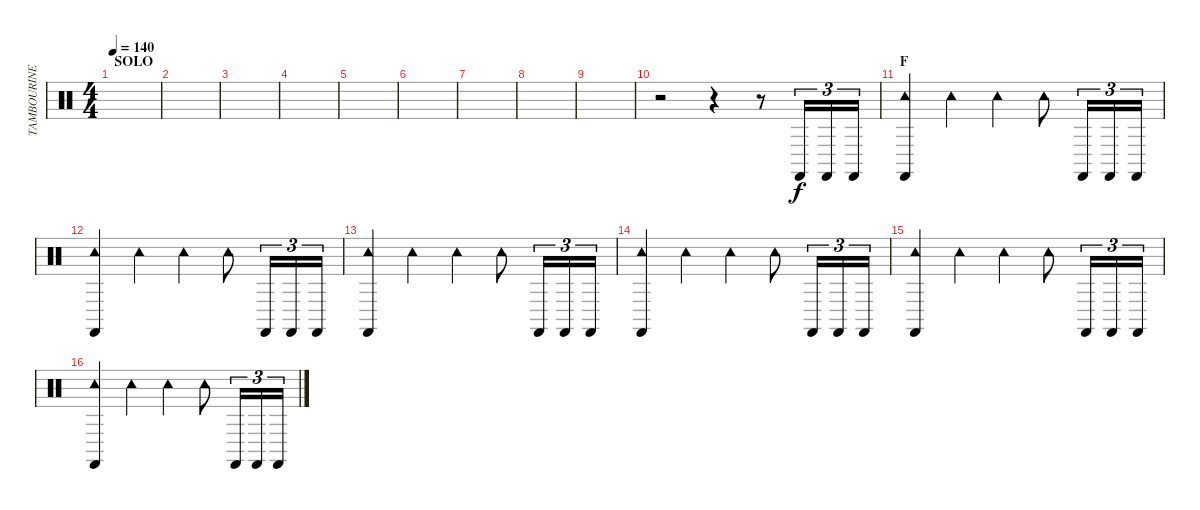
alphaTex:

\track ("TAMBOURINE" "TAMBOURINE") {instrument percussion}
\staff {score}
\articulation defaults
\ts (4 4)
\section ("" "SOLO")
\tempo 140
\clef neutral
\ks aminor
|
|
|
|
|
|
|
|
|
r.2 r.4 r.8 "Castanets (hit)".16{tu (3 2)} "Castanets (hit)".16{tu (3 2)} "Castanets (hit)".16{tu (3 2)} |
\section ("" "F")
("Tambourine (hit)" "Castanets (hit)").4 "Tambourine (hit)".4 "Tambourine (hit)".4 "Tambourine (hit)".8 "Castanets (hit)".16{tu (3 2)} "Castanets (hit)".16{tu (3 2)} "Castanets (hit)".16{tu (3 2)} |
("Tambourine (hit)" "Castanets (hit)").4 "Tambourine (hit)".4 "Tambourine (hit)".4 "Tambourine (hit)".8 "Castanets (hit)".16{tu (3 2)} "Castanets (hit)".16{tu (3 2)} "Castanets (hit)".16{tu (3 2)} |
("Tambourine (hit)" "Castanets (hit)").4 "Tambourine (hit)".4 "Tambourine (hit)".4 "Tambourine (hit)".8 "Castanets (hit)".16{tu (3 2)} "Castanets (hit)".16{tu (3 2)} "Castanets (hit)".16{tu (3 2)} |
("Tambourine (hit)" "Castanets (hit)").4 "Tambourine (hit)".4 "Tambourine (hit)".4 "Tambourine (hit)".8 "Castanets (hit)".16{tu (3 2)} "Castanets (hit)".16{tu (3 2)} "Castanets (hit)".16{tu (3 2)} |
("Tambourine (hit)" "Castanets (hit)").4 "Tambourine (hit)".4 "Tambourine (hit)".4 "Tambourine (hit)".8 "Castanets (hit)".16{tu (3 2)} "Castanets (hit)".16{tu (3 2)} "Castanets (hit)".16{tu (3 2)} |
("Tambourine (hit)" "Castanets (hit)").4 "Tambourine (hit)".4 "Tambourine (hit)".4 "Tambourine (hit)".8 "Castanets (hit)".16{tu (3 2)} "Castanets (hit)".16{tu (3 2)} "Castanets (hit)".16{tu (3 2)}
